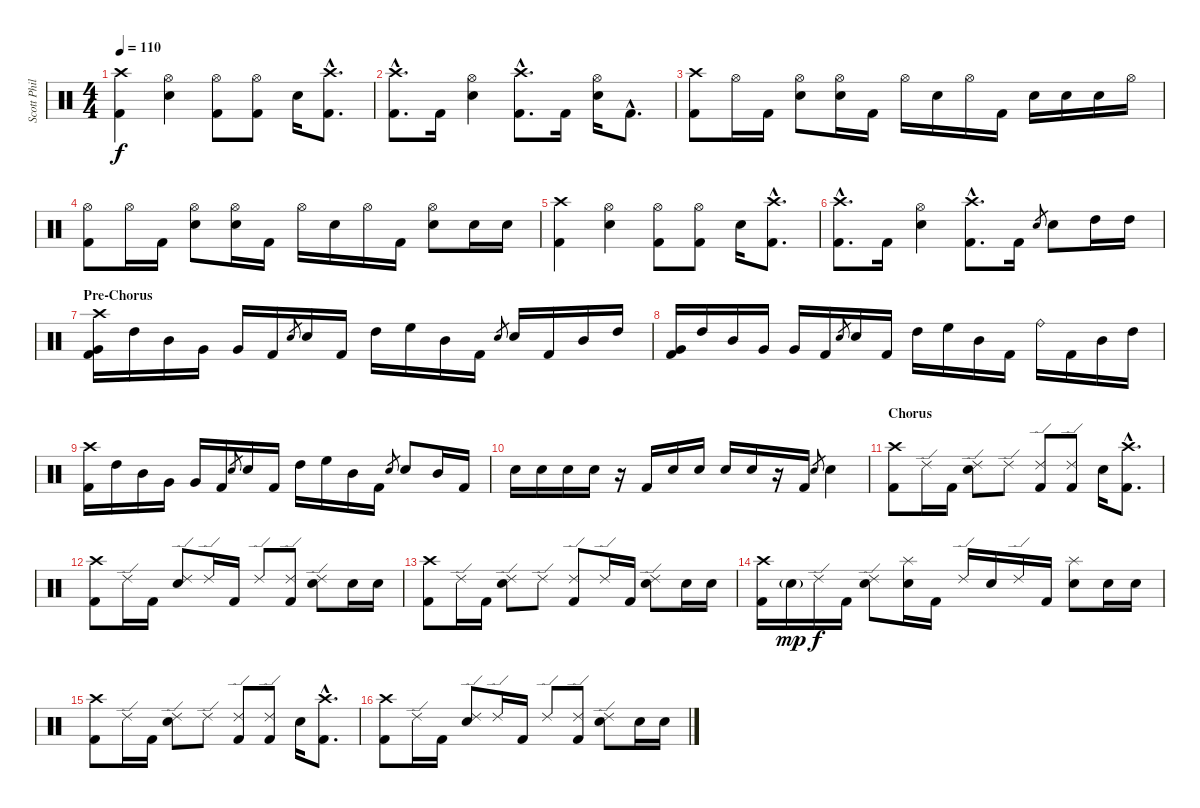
\track ("Scott Phillips" "Scott Phil") {instrument percussion}
\staff {score}
\articulation defaults
\ts (4 4)
\tempo 110
\clef neutral
\ks c
("Crash high (hit)" "Kick (hit) 2").4{dy f} ("Hi-Hat (open)" "Snare (hit) 2").4 ("Hi-Hat (open)" "Kick (hit) 2").8 ("Hi-Hat (open)" "Kick (hit) 2").8 "Snare (hit) 2".16 ("Crash high (hit)"{hac} "Kick (hit) 2"{hac}).8{d} |
("Crash high (hit)"{hac} "Kick (hit) 2"{hac}).8{d} "Kick (hit) 2".16 ("Hi-Hat (open)" "Snare (hit) 2").4 ("Crash high (hit)"{hac} "Kick (hit) 2"{hac}).8{d} "Kick (hit) 2".16 ("Hi-Hat (open)" "Snare (hit) 2").16 "Kick (hit) 2"{hac}.8{d} |
("Crash high (hit)" "Kick (hit) 2").8 "Hi-Hat (open)".16 "Kick (hit) 2".16 ("Hi-Hat (open)" "Snare (hit) 2").8 ("Hi-Hat (open)" "Snare (hit) 2").16 "Kick (hit) 2".16 "Hi-Hat (open)".16 "Snare (hit) 2".16 "Hi-Hat (open)".16 "Kick (hit) 2".16 "Snare (hit) 2".16 "Snare (hit) 2".16 "Snare (hit) 2".16 "Hi-Hat (open)".16 |
("Hi-Hat (open)" "Kick (hit) 2").8 "Hi-Hat (open)".16 "Kick (hit) 2".16 ("Hi-Hat (open)" "Snare (hit) 2").8 ("Hi-Hat (open)" "Snare (hit) 2").16 "Kick (hit) 2".16 "Hi-Hat (open)".16 "Snare (hit) 2".16 "Hi-Hat (open)".16 "Kick (hit) 2".16 ("Hi-Hat (open)" "Snare (hit) 2").8 "Snare (hit) 2".16 "Snare (hit) 2".16 |
("Crash high (hit)" "Kick (hit) 2").4 ("Hi-Hat (open)" "Snare (hit) 2").4 ("Hi-Hat (open)" "Kick (hit) 2").8 ("Hi-Hat (open)" "Kick (hit) 2").8 "Snare (hit) 2".16 ("Crash high (hit)"{hac} "Kick (hit) 2"{hac}).8{d} |
("Crash high (hit)"{hac} "Kick (hit) 2"{hac}).8{d} "Kick (hit) 2".16 ("Hi-Hat (open)" "Snare (hit) 2").4 ("Crash high (hit)"{hac} "Kick (hit) 2"{hac}).8{d} "Kick (hit) 2".16 "Snare (hit) 2".8{gr} "Snare (hit) 2".8 "High Tom (hit)".16 "High Tom (hit)".16 |
\section ("" "Pre-Chorus")
("Crash high (hit)" "Very Low Tom (hit)" "Kick (hit) 2").16 "High Tom (hit)".16 "Mid Tom (hit)".16 "Very Low Tom (hit)".16 "Very Low Tom (hit)".16 "Kick (hit) 2".16 "Snare (hit) 2".8{gr} "Snare (hit) 2".16 "Kick (hit) 2".16 "High Tom (hit)".16 "High Floor Tom (hit)".16 "Mid Tom (hit)".16 "Kick (hit) 2".16 "Snare (hit) 2".8{gr} "Snare (hit) 2".16 "Kick (hit) 2".16 "Mid Tom (hit)".16 "High Tom (hit)".16 |
("Very Low Tom (hit)" "Kick (hit) 2").16 "High Tom (hit)".16 "Mid Tom (hit)".16 "Very Low Tom (hit)".16 "Very Low Tom (hit)".16 "Kick (hit) 2".16 "Snare (hit) 2".8{gr} "Snare (hit) 2".16 "Kick (hit) 2".16 "High Tom (hit)".16 "High Floor Tom (hit)".16 "Mid Tom (hit)".16 "Kick (hit) 2".16 "Ride (bell)".16 "Kick (hit) 2".16 "Mid Tom (hit)".16 "High Tom (hit)".16 |
("Crash high (hit)" "Kick (hit) 2").16 "High Tom (hit)".16 "Mid Tom (hit)".16 "Very Low Tom (hit)".16 "Very Low Tom (hit)".16 "Kick (hit) 2".16 "Snare (hit) 2".8{gr} "Snare (hit) 2".16 "Kick (hit) 2".16 "High Tom (hit)".16 "High Floor Tom (hit)".16 "Mid Tom (hit)".16 "Kick (hit) 2".16 "Snare (hit) 2".8{gr} "Snare (hit) 2".8 "Mid Tom (hit)".16 "Kick (hit) 2".16 |
"Snare (hit) 2".16 "Snare (hit) 2".16 "Snare (hit) 2".16 "Snare (hit) 2".16 r.16 "Kick (hit) 2".16 "Snare (hit) 2".16 "Snare (hit) 2".16 "Snare (hit) 2".16 "Snare (hit) 2".16 r.16 "Kick (hit) 2".16 "Snare (hit) 2".8{gr} "Snare (hit) 2".4 |
\section ("" "Chorus")
("Crash high (hit)" "Kick (hit) 2").8 "Ride (edge) 2".16 "Kick (hit) 2".16 ("Ride (edge) 2" "Snare (hit) 2").8 "Ride (edge) 2".8 ("Ride (edge) 2" "Kick (hit) 2").8 ("Ride (edge) 2" "Kick (hit) 2").8 "Snare (hit) 2".16 ("Crash high (hit)"{hac} "Kick (hit) 2"{hac}).8{d} |
("Crash high (hit)" "Kick (hit) 2").8 "Ride (edge) 2".16 "Kick (hit) 2".16 ("Ride (edge) 2" "Snare (hit) 2").8 "Ride (edge) 2".16 "Kick (hit) 2".16 "Ride (edge) 2".8 ("Ride (edge) 2" "Kick (hit) 2").8 ("Ride (edge) 2" "Snare (hit) 2").8 "Snare (hit) 2".16 "Snare (hit) 2".16 |
("Crash high (hit)" "Kick (hit) 2").8 "Ride (edge) 2".16 "Kick (hit) 2".16 ("Ride (edge) 2" "Snare (hit) 2").8 "Ride (edge) 2".8 ("Ride (edge) 2" "Kick (hit) 2").8 "Ride (edge) 2".16 "Kick (hit) 2".16 ("Ride (edge) 2" "Snare (hit) 2").8 "Snare (hit) 2".16 "Snare (hit) 2".16 |
("Crash high (hit)" "Kick (hit) 2").16 "Snare (hit) 2"{g}.16{dy mp} "Ride (edge) 2".16{dy f} "Kick (hit) 2".16 ("Ride (edge) 2" "Snare (hit) 2").8 ("Splash (hit)" "Snare (hit) 2").16 "Kick (hit) 2".16 "Ride (edge) 2".16 "Snare (hit) 2".16 "Ride (edge) 2".16 "Kick (hit) 2".16 ("Splash (hit)" "Snare (hit) 2").8 "Snare (hit) 2".16 "Snare (hit) 2".16 |
("Crash high (hit)" "Kick (hit) 2").8 "Ride (edge) 2".16 "Kick (hit) 2".16 ("Ride (edge) 2" "Snare (hit) 2").8 "Ride (edge) 2".8 ("Ride (edge) 2" "Kick (hit) 2").8 ("Ride (edge) 2" "Kick (hit) 2").8 "Snare (hit) 2".16 ("Crash high (hit)"{hac} "Kick (hit) 2"{hac}).8{d} |
("Crash high (hit)" "Kick (hit) 2").8 "Ride (edge) 2".16 "Kick (hit) 2".16 ("Ride (edge) 2" "Snare (hit) 2").8 "Ride (edge) 2".16 "Kick (hit) 2".16 "Ride (edge) 2".8 ("Ride (edge) 2" "Kick (hit) 2").8 ("Ride (edge) 2" "Snare (hit) 2").8 "Snare (hit) 2".16 "Snare (hit) 2".16
